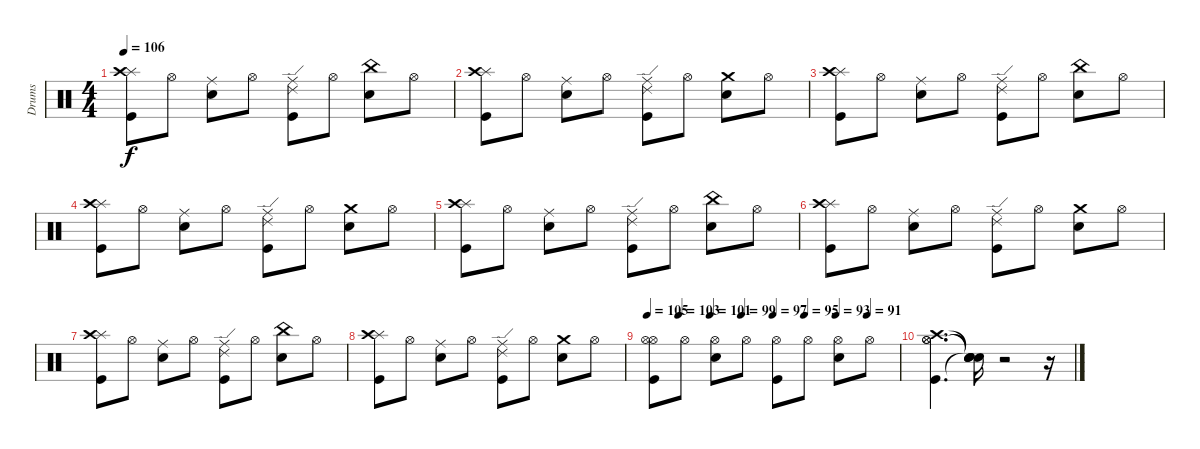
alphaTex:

\track ("Drums" "Drums") {instrument percussion}
\staff {score}
\articulation defaults
\ts (4 4)
\tempo 106
\clef neutral
\ks c
("Kick (hit)" "Splash (hit)" "Crash high (hit)").8{dy f volume 12} "Hi-Hat (open)".8 ("Snare (hit) 2" "Ride (middle)").8 "Hi-Hat (open)".8 ("Kick (hit)" "Ride (middle)" "Ride (edge) 2").8 "Hi-Hat (open)".8 ("Snare (hit) 2" "China (hit)").8 "Hi-Hat (open)".8 |
("Kick (hit)" "Splash (hit)" "Crash high (hit)").8{volume 12} "Hi-Hat (open)".8 ("Snare (hit) 2" "Ride (middle)").8 "Hi-Hat (open)".8 ("Kick (hit)" "Ride (middle)" "Ride (edge) 2").8 "Hi-Hat (open)".8 ("Snare (hit) 2" "Crash medium (hit)").8 "Hi-Hat (open)".8 |
("Kick (hit)" "Splash (hit)" "Crash high (hit)").8{volume 12} "Hi-Hat (open)".8 ("Snare (hit) 2" "Ride (middle)").8 "Hi-Hat (open)".8 ("Kick (hit)" "Ride (middle)" "Ride (edge) 2").8 "Hi-Hat (open)".8 ("Snare (hit) 2" "China (hit)").8 "Hi-Hat (open)".8 |
("Kick (hit)" "Splash (hit)" "Crash high (hit)").8{volume 12} "Hi-Hat (open)".8 ("Snare (hit) 2" "Ride (middle)").8 "Hi-Hat (open)".8 ("Kick (hit)" "Ride (middle)" "Ride (edge) 2").8 "Hi-Hat (open)".8 ("Snare (hit) 2" "Crash medium (hit)").8 "Hi-Hat (open)".8 |
("Kick (hit)" "Splash (hit)" "Crash high (hit)").8{volume 12} "Hi-Hat (open)".8 ("Snare (hit) 2" "Ride (middle)").8 "Hi-Hat (open)".8 ("Kick (hit)" "Ride (middle)" "Ride (edge) 2").8 "Hi-Hat (open)".8 ("Snare (hit) 2" "China (hit)").8 "Hi-Hat (open)".8 |
("Kick (hit)" "Splash (hit)" "Crash high (hit)").8{volume 12} "Hi-Hat (open)".8 ("Snare (hit) 2" "Ride (middle)").8 "Hi-Hat (open)".8 ("Kick (hit)" "Ride (middle)" "Ride (edge) 2").8 "Hi-Hat (open)".8 ("Snare (hit) 2" "Crash medium (hit)").8 "Hi-Hat (open)".8 |
("Kick (hit)" "Splash (hit)" "Crash high (hit)").8{volume 12} "Hi-Hat (open)".8 ("Snare (hit) 2" "Ride (middle)").8 "Hi-Hat (open)".8 ("Kick (hit)" "Ride (middle)" "Ride (edge) 2").8 "Hi-Hat (open)".8 ("Snare (hit) 2" "China (hit)").8 "Hi-Hat (open)".8 |
("Kick (hit)" "Splash (hit)" "Crash high (hit)").8{volume 12} "Hi-Hat (open)".8 ("Snare (hit) 2" "Ride (middle)").8 "Hi-Hat (open)".8 ("Kick (hit)" "Ride (middle)" "Ride (edge) 2").8 "Hi-Hat (open)".8 ("Snare (hit) 2" "Crash medium (hit)").8 "Hi-Hat (open)".8 |
\tempo 105
\tempo (103 0.125)
\tempo (101 0.25)
\tempo (99 0.375)
\tempo (97 0.5)
\tempo (95 0.625)
\tempo (93 0.75)
\tempo (91 0.875)
("Hi-Hat (open)" "Kick (hit)" "Hi-Hat (open)").8{volume 12} "Hi-Hat (open)".8 ("Snare (hit) 2" "Hi-Hat (open)").8 "Hi-Hat (open)".8 ("Kick (hit)" "Hi-Hat (open)").8 "Hi-Hat (open)".8 ("Snare (hit) 2" "Hi-Hat (open)").8 "Hi-Hat (open)".8 |
("Kick (hit)" "Hi-Hat (open)" "Crash high (hit)" "Hi-Hat (open)").4{d} ("Snare (hit)"{t} "Snare (hit)"{t} "Snare (hit)"{t} "Snare (hit)"{t}).16 r.2 r.16
